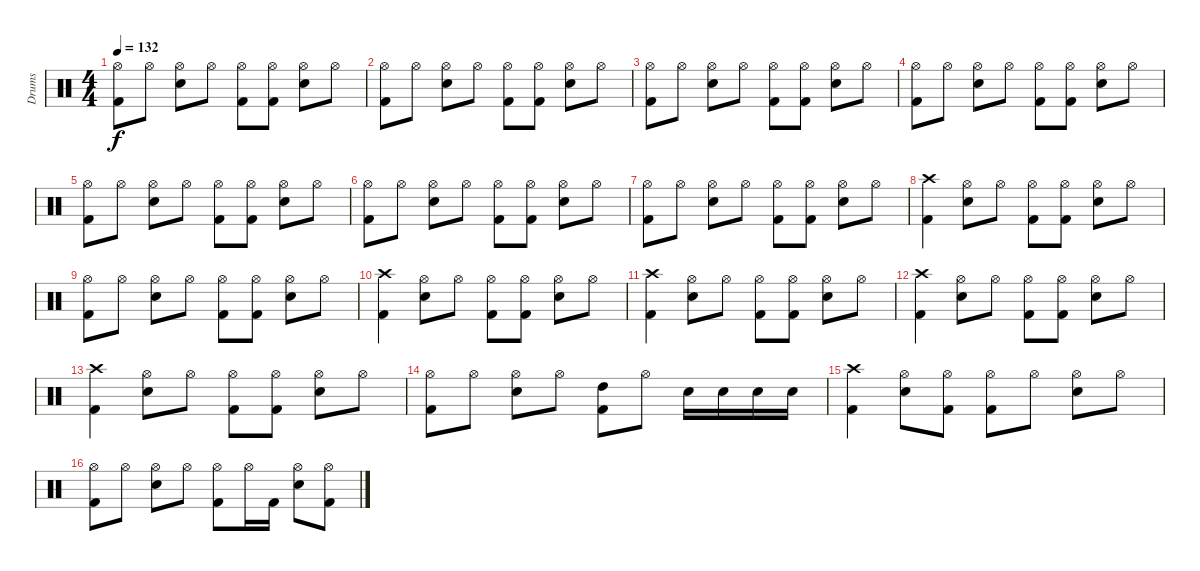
\track ("Drums " "Drums ") {instrument percussion}
\staff {score}
\articulation defaults
\ts (4 4)
\tempo 132
\clef neutral
\ks aminor
("Kick (hit) 2" "Hi-Hat (open)").8{dy f} "Hi-Hat (open)".8 ("Snare (hit) 2" "Hi-Hat (open)").8 "Hi-Hat (open)".8 ("Kick (hit) 2" "Hi-Hat (open)").8 ("Kick (hit) 2" "Hi-Hat (open)").8 ("Snare (hit) 2" "Hi-Hat (open)").8 "Hi-Hat (open)".8 |
("Kick (hit) 2" "Hi-Hat (open)").8 "Hi-Hat (open)".8 ("Snare (hit) 2" "Hi-Hat (open)").8 "Hi-Hat (open)".8 ("Kick (hit) 2" "Hi-Hat (open)").8 ("Kick (hit) 2" "Hi-Hat (open)").8 ("Snare (hit) 2" "Hi-Hat (open)").8 "Hi-Hat (open)".8 |
("Kick (hit) 2" "Hi-Hat (open)").8 "Hi-Hat (open)".8 ("Snare (hit) 2" "Hi-Hat (open)").8 "Hi-Hat (open)".8 ("Kick (hit) 2" "Hi-Hat (open)").8 ("Kick (hit) 2" "Hi-Hat (open)").8 ("Snare (hit) 2" "Hi-Hat (open)").8 "Hi-Hat (open)".8 |
("Kick (hit) 2" "Hi-Hat (open)").8 "Hi-Hat (open)".8 ("Snare (hit) 2" "Hi-Hat (open)").8 "Hi-Hat (open)".8 ("Kick (hit) 2" "Hi-Hat (open)").8 ("Kick (hit) 2" "Hi-Hat (open)").8 ("Snare (hit) 2" "Hi-Hat (open)").8 "Hi-Hat (open)".8 |
("Kick (hit) 2" "Hi-Hat (open)").8 "Hi-Hat (open)".8 ("Snare (hit) 2" "Hi-Hat (open)").8 "Hi-Hat (open)".8 ("Kick (hit) 2" "Hi-Hat (open)").8 ("Kick (hit) 2" "Hi-Hat (open)").8 ("Snare (hit) 2" "Hi-Hat (open)").8 "Hi-Hat (open)".8 |
("Kick (hit) 2" "Hi-Hat (open)").8 "Hi-Hat (open)".8 ("Snare (hit) 2" "Hi-Hat (open)").8 "Hi-Hat (open)".8 ("Kick (hit) 2" "Hi-Hat (open)").8 ("Kick (hit) 2" "Hi-Hat (open)").8 ("Snare (hit) 2" "Hi-Hat (open)").8 "Hi-Hat (open)".8 |
("Kick (hit) 2" "Hi-Hat (open)").8 "Hi-Hat (open)".8 ("Snare (hit) 2" "Hi-Hat (open)").8 "Hi-Hat (open)".8 ("Kick (hit) 2" "Hi-Hat (open)").8 ("Kick (hit) 2" "Hi-Hat (open)").8 ("Snare (hit) 2" "Hi-Hat (open)").8 "Hi-Hat (open)".8 |
("Kick (hit) 2" "Crash high (hit)").4 ("Snare (hit) 2" "Hi-Hat (open)").8 "Hi-Hat (open)".8 ("Kick (hit) 2" "Hi-Hat (open)").8 ("Kick (hit) 2" "Hi-Hat (open)").8 ("Snare (hit) 2" "Hi-Hat (open)").8 "Hi-Hat (open)".8 |
("Kick (hit) 2" "Hi-Hat (open)").8 "Hi-Hat (open)".8 ("Snare (hit) 2" "Hi-Hat (open)").8 "Hi-Hat (open)".8 ("Kick (hit) 2" "Hi-Hat (open)").8 ("Kick (hit) 2" "Hi-Hat (open)").8 ("Snare (hit) 2" "Hi-Hat (open)").8 "Hi-Hat (open)".8 |
("Kick (hit) 2" "Crash high (hit)").4 ("Snare (hit) 2" "Hi-Hat (open)").8 "Hi-Hat (open)".8 ("Kick (hit) 2" "Hi-Hat (open)").8 ("Kick (hit) 2" "Hi-Hat (open)").8 ("Snare (hit) 2" "Hi-Hat (open)").8 "Hi-Hat (open)".8 |
("Kick (hit) 2" "Crash high (hit)").4 ("Snare (hit) 2" "Hi-Hat (open)").8 "Hi-Hat (open)".8 ("Kick (hit) 2" "Hi-Hat (open)").8 ("Kick (hit) 2" "Hi-Hat (open)").8 ("Snare (hit) 2" "Hi-Hat (open)").8 "Hi-Hat (open)".8 |
("Kick (hit) 2" "Crash high (hit)").4 ("Snare (hit) 2" "Hi-Hat (open)").8 "Hi-Hat (open)".8 ("Kick (hit) 2" "Hi-Hat (open)").8 ("Kick (hit) 2" "Hi-Hat (open)").8 ("Snare (hit) 2" "Hi-Hat (open)").8 "Hi-Hat (open)".8 |
("Kick (hit) 2" "Crash high (hit)").4 ("Snare (hit) 2" "Hi-Hat (open)").8 "Hi-Hat (open)".8 ("Kick (hit) 2" "Hi-Hat (open)").8 ("Kick (hit) 2" "Hi-Hat (open)").8 ("Snare (hit) 2" "Hi-Hat (open)").8 "Hi-Hat (open)".8 |
("Kick (hit) 2" "Hi-Hat (open)").8 "Hi-Hat (open)".8 ("Snare (hit) 2" "Hi-Hat (open)").8 "Hi-Hat (open)".8 ("Kick (hit) 2" "High Tom (hit)").8 "Hi-Hat (open)".8 "Snare (hit) 2".16 "Snare (hit) 2".16 "Snare (hit) 2".16 "Snare (hit) 2".16 |
("Kick (hit) 2" "Crash high (hit)").4 ("Snare (hit) 2" "Hi-Hat (open)").8 ("Kick (hit) 2" "Hi-Hat (open)").8 ("Kick (hit) 2" "Hi-Hat (open)").8 "Hi-Hat (open)".8 ("Snare (hit) 2" "Hi-Hat (open)").8 "Hi-Hat (open)".8 |
("Kick (hit) 2" "Hi-Hat (open)").8 "Hi-Hat (open)".8 ("Snare (hit) 2" "Hi-Hat (open)").8 "Hi-Hat (open)".8 ("Kick (hit) 2" "Hi-Hat (open)").8 "Hi-Hat (open)".16 "Kick (hit) 2".16 ("Snare (hit) 2" "Hi-Hat (open)").8 ("Kick (hit) 2" "Hi-Hat (open)").8
